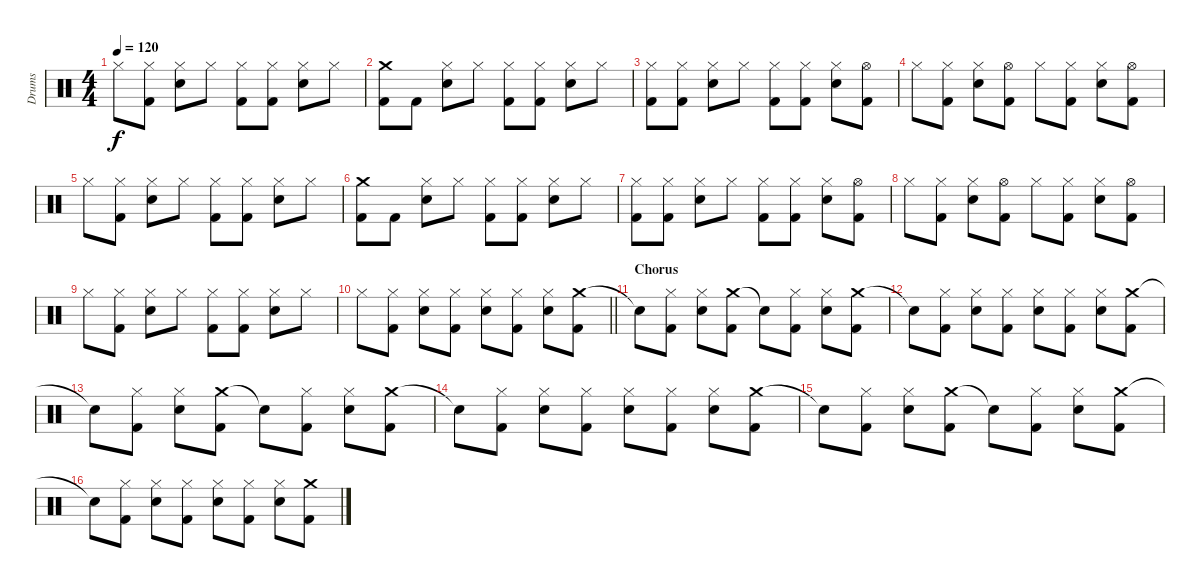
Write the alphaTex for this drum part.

\track ("Drums" "Drums") {instrument percussion}
\staff {score}
\articulation defaults
\ts (4 4)
\tempo 120
\clef neutral
\ks c "Hi-Hat (closed)".8{dy f}
("Hi-Hat (closed)" "Kick (hit) 2").8 ("Hi-Hat (closed)" "Snare (hit) 2").8 "Hi-Hat (closed)".8 ("Hi-Hat (closed)" "Kick (hit) 2").8 ("Hi-Hat (closed)" "Kick (hit) 2").8 ("Hi-Hat (closed)" "Snare (hit) 2").8 "Hi-Hat (closed)".8 |
("Crash medium (hit)" "Kick (hit) 2").8 "Kick (hit) 2".8 ("Hi-Hat (closed)" "Snare (hit) 2").8 "Hi-Hat (closed)".8 ("Hi-Hat (closed)" "Kick (hit) 2").8 ("Hi-Hat (closed)" "Kick (hit) 2").8 ("Hi-Hat (closed)" "Snare (hit) 2").8 "Hi-Hat (closed)".8 |
("Hi-Hat (closed)" "Kick (hit) 2").8 ("Hi-Hat (closed)" "Kick (hit) 2").8 ("Hi-Hat (closed)" "Snare (hit) 2").8 "Hi-Hat (closed)".8 ("Hi-Hat (closed)" "Kick (hit) 2").8 ("Hi-Hat (closed)" "Kick (hit) 2").8 ("Hi-Hat (closed)" "Snare (hit) 2").8 ("Hi-Hat (open)" "Kick (hit) 2").8 |
"Hi-Hat (closed)".8 ("Hi-Hat (closed)" "Kick (hit) 2").8 ("Hi-Hat (closed)" "Snare (hit) 2").8 ("Hi-Hat (open)" "Kick (hit) 2").8 "Hi-Hat (closed)".8 ("Hi-Hat (closed)" "Kick (hit) 2").8 ("Hi-Hat (closed)" "Snare (hit) 2").8 ("Hi-Hat (open)" "Kick (hit) 2").8 |
"Hi-Hat (closed)".8 ("Hi-Hat (closed)" "Kick (hit) 2").8 ("Hi-Hat (closed)" "Snare (hit) 2").8 "Hi-Hat (closed)".8 ("Hi-Hat (closed)" "Kick (hit) 2").8 ("Hi-Hat (closed)" "Kick (hit) 2").8 ("Hi-Hat (closed)" "Snare (hit) 2").8 "Hi-Hat (closed)".8 |
("Crash medium (hit)" "Kick (hit) 2").8 "Kick (hit) 2".8 ("Hi-Hat (closed)" "Snare (hit) 2").8 "Hi-Hat (closed)".8 ("Hi-Hat (closed)" "Kick (hit) 2").8 ("Hi-Hat (closed)" "Kick (hit) 2").8 ("Hi-Hat (closed)" "Snare (hit) 2").8 "Hi-Hat (closed)".8 |
("Hi-Hat (closed)" "Kick (hit) 2").8 ("Hi-Hat (closed)" "Kick (hit) 2").8 ("Hi-Hat (closed)" "Snare (hit) 2").8 "Hi-Hat (closed)".8 ("Hi-Hat (closed)" "Kick (hit) 2").8 ("Hi-Hat (closed)" "Kick (hit) 2").8 ("Hi-Hat (closed)" "Snare (hit) 2").8 ("Hi-Hat (open)" "Kick (hit) 2").8 |
"Hi-Hat (closed)".8 ("Hi-Hat (closed)" "Kick (hit) 2").8 ("Hi-Hat (closed)" "Snare (hit) 2").8 ("Hi-Hat (open)" "Kick (hit) 2").8 "Hi-Hat (closed)".8 ("Hi-Hat (closed)" "Kick (hit) 2").8 ("Hi-Hat (closed)" "Snare (hit) 2").8 ("Hi-Hat (open)" "Kick (hit) 2").8 |
"Hi-Hat (closed)".8 ("Hi-Hat (closed)" "Kick (hit) 2").8 ("Hi-Hat (closed)" "Snare (hit) 2").8 "Hi-Hat (closed)".8 ("Hi-Hat (closed)" "Kick (hit) 2").8 ("Hi-Hat (closed)" "Kick (hit) 2").8 ("Hi-Hat (closed)" "Snare (hit) 2").8 "Hi-Hat (closed)".8 |
\barLineRight lightlight "Hi-Hat (closed)".8
("Hi-Hat (closed)" "Kick (hit) 2").8 ("Hi-Hat (closed)" "Snare (hit) 2").8 ("Hi-Hat (closed)" "Kick (hit) 2").8 ("Hi-Hat (closed)" "Snare (hit) 2").8 ("Hi-Hat (closed)" "Kick (hit) 2").8 ("Hi-Hat (closed)" "Snare (hit) 2").8 ("Crash medium (hit)" "Kick (hit) 2").8 |
\section ("" "Chorus")
"Snare (hit)"{t}.8 ("Hi-Hat (closed)" "Kick (hit) 2").8 ("Hi-Hat (closed)" "Snare (hit) 2").8 ("Crash medium (hit)" "Kick (hit) 2").8 "Snare (hit)"{t}.8 ("Hi-Hat (closed)" "Kick (hit) 2").8 ("Hi-Hat (closed)" "Snare (hit) 2").8 ("Crash medium (hit)" "Kick (hit) 2").8 |
"Snare (hit)"{t}.8 ("Hi-Hat (closed)" "Kick (hit) 2").8 ("Hi-Hat (closed)" "Snare (hit) 2").8 ("Hi-Hat (closed)" "Kick (hit) 2").8 ("Hi-Hat (closed)" "Snare (hit) 2").8 ("Hi-Hat (closed)" "Kick (hit) 2").8 ("Hi-Hat (closed)" "Snare (hit) 2").8 ("Crash medium (hit)" "Kick (hit) 2").8 |
"Snare (hit)"{t}.8 ("Hi-Hat (closed)" "Kick (hit) 2").8 ("Hi-Hat (closed)" "Snare (hit) 2").8 ("Crash medium (hit)" "Kick (hit) 2").8 "Snare (hit)"{t}.8 ("Hi-Hat (closed)" "Kick (hit) 2").8 ("Hi-Hat (closed)" "Snare (hit) 2").8 ("Crash medium (hit)" "Kick (hit) 2").8 |
"Snare (hit)"{t}.8 ("Hi-Hat (closed)" "Kick (hit) 2").8 ("Hi-Hat (closed)" "Snare (hit) 2").8 ("Hi-Hat (closed)" "Kick (hit) 2").8 ("Hi-Hat (closed)" "Snare (hit) 2").8 ("Hi-Hat (closed)" "Kick (hit) 2").8 ("Hi-Hat (closed)" "Snare (hit) 2").8 ("Crash medium (hit)" "Kick (hit) 2").8 |
"Snare (hit)"{t}.8 ("Hi-Hat (closed)" "Kick (hit) 2").8 ("Hi-Hat (closed)" "Snare (hit) 2").8 ("Crash medium (hit)" "Kick (hit) 2").8 "Snare (hit)"{t}.8 ("Hi-Hat (closed)" "Kick (hit) 2").8 ("Hi-Hat (closed)" "Snare (hit) 2").8 ("Crash medium (hit)" "Kick (hit) 2").8 |
"Snare (hit)"{t}.8 ("Hi-Hat (closed)" "Kick (hit) 2").8 ("Hi-Hat (closed)" "Snare (hit) 2").8 ("Hi-Hat (closed)" "Kick (hit) 2").8 ("Hi-Hat (closed)" "Snare (hit) 2").8 ("Hi-Hat (closed)" "Kick (hit) 2").8 ("Hi-Hat (closed)" "Snare (hit) 2").8 ("Crash medium (hit)" "Kick (hit) 2").8
